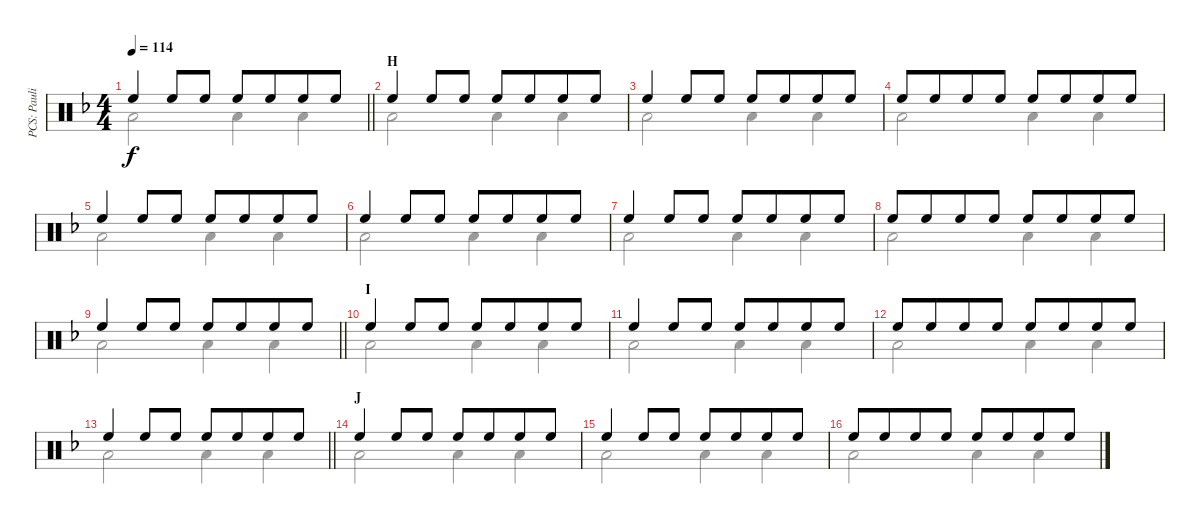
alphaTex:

\track ("PCS: Paulinho da Costa" "PCS: Pauli") {instrument percussion}
\staff {score}
\articulation defaults
\voice
\ts (4 4)
\tempo 114
\clef neutral
\barLineRight lightlight
\ks f "High Floor Tom (hit)".4{dy f} "High Floor Tom (hit)".8 "High Floor Tom (hit)".8 "High Floor Tom (hit)".8 "High Floor Tom (hit)".8{beam merge} "High Floor Tom (hit)".8 "High Floor Tom (hit)".8
|
\section ("" "H")
"High Floor Tom (hit)".4 "High Floor Tom (hit)".8 "High Floor Tom (hit)".8 "High Floor Tom (hit)".8 "High Floor Tom (hit)".8{beam merge} "High Floor Tom (hit)".8 "High Floor Tom (hit)".8 |
"High Floor Tom (hit)".4 "High Floor Tom (hit)".8 "High Floor Tom (hit)".8 "High Floor Tom (hit)".8 "High Floor Tom (hit)".8{beam merge} "High Floor Tom (hit)".8 "High Floor Tom (hit)".8 |
"High Floor Tom (hit)".8 "High Floor Tom (hit)".8{beam merge} "High Floor Tom (hit)".8 "High Floor Tom (hit)".8 "High Floor Tom (hit)".8{beam merge} "High Floor Tom (hit)".8{beam merge} "High Floor Tom (hit)".8 "High Floor Tom (hit)".8 |
"High Floor Tom (hit)".4 "High Floor Tom (hit)".8 "High Floor Tom (hit)".8 "High Floor Tom (hit)".8 "High Floor Tom (hit)".8{beam merge} "High Floor Tom (hit)".8 "High Floor Tom (hit)".8 |
"High Floor Tom (hit)".4 "High Floor Tom (hit)".8 "High Floor Tom (hit)".8 "High Floor Tom (hit)".8 "High Floor Tom (hit)".8{beam merge} "High Floor Tom (hit)".8 "High Floor Tom (hit)".8 |
"High Floor Tom (hit)".4 "High Floor Tom (hit)".8 "High Floor Tom (hit)".8 "High Floor Tom (hit)".8 "High Floor Tom (hit)".8{beam merge} "High Floor Tom (hit)".8 "High Floor Tom (hit)".8 |
"High Floor Tom (hit)".8 "High Floor Tom (hit)".8{beam merge} "High Floor Tom (hit)".8 "High Floor Tom (hit)".8 "High Floor Tom (hit)".8{beam merge} "High Floor Tom (hit)".8{beam merge} "High Floor Tom (hit)".8 "High Floor Tom (hit)".8 |
\barLineRight lightlight "High Floor Tom (hit)".4 "High Floor Tom (hit)".8 "High Floor Tom (hit)".8 "High Floor Tom (hit)".8 "High Floor Tom (hit)".8{beam merge} "High Floor Tom (hit)".8 "High Floor Tom (hit)".8
|
\section ("" "I")
"High Floor Tom (hit)".4 "High Floor Tom (hit)".8 "High Floor Tom (hit)".8 "High Floor Tom (hit)".8 "High Floor Tom (hit)".8{beam merge} "High Floor Tom (hit)".8 "High Floor Tom (hit)".8 |
"High Floor Tom (hit)".4 "High Floor Tom (hit)".8 "High Floor Tom (hit)".8 "High Floor Tom (hit)".8 "High Floor Tom (hit)".8{beam merge} "High Floor Tom (hit)".8 "High Floor Tom (hit)".8 |
"High Floor Tom (hit)".8 "High Floor Tom (hit)".8{beam merge} "High Floor Tom (hit)".8 "High Floor Tom (hit)".8 "High Floor Tom (hit)".8{beam merge} "High Floor Tom (hit)".8{beam merge} "High Floor Tom (hit)".8 "High Floor Tom (hit)".8 |
\barLineRight lightlight "High Floor Tom (hit)".4 "High Floor Tom (hit)".8 "High Floor Tom (hit)".8 "High Floor Tom (hit)".8 "High Floor Tom (hit)".8{beam merge} "High Floor Tom (hit)".8 "High Floor Tom (hit)".8
|
\section ("" "J")
"High Floor Tom (hit)".4 "High Floor Tom (hit)".8 "High Floor Tom (hit)".8 "High Floor Tom (hit)".8 "High Floor Tom (hit)".8{beam merge} "High Floor Tom (hit)".8 "High Floor Tom (hit)".8 |
"High Floor Tom (hit)".4 "High Floor Tom (hit)".8 "High Floor Tom (hit)".8 "High Floor Tom (hit)".8 "High Floor Tom (hit)".8{beam merge} "High Floor Tom (hit)".8 "High Floor Tom (hit)".8 |
"High Floor Tom (hit)".8 "High Floor Tom (hit)".8{beam merge} "High Floor Tom (hit)".8 "High Floor Tom (hit)".8 "High Floor Tom (hit)".8{beam merge} "High Floor Tom (hit)".8{beam merge} "High Floor Tom (hit)".8 "High Floor Tom (hit)".8
\voice
\clef neutral
\ottava regular
\simile none
\barLineRight lightlight
\ks f "Low Floor Tom (hit)".2{dy f} "Low Floor Tom (hit)".4 "Low Floor Tom (hit)".4
|
"Low Floor Tom (hit)".2 "Low Floor Tom (hit)".4 "Low Floor Tom (hit)".4 |
"Low Floor Tom (hit)".2 "Low Floor Tom (hit)".4 "Low Floor Tom (hit)".4 |
"Low Floor Tom (hit)".2 "Low Floor Tom (hit)".4 "Low Floor Tom (hit)".4 |
"Low Floor Tom (hit)".2 "Low Floor Tom (hit)".4 "Low Floor Tom (hit)".4 |
"Low Floor Tom (hit)".2 "Low Floor Tom (hit)".4 "Low Floor Tom (hit)".4 |
"Low Floor Tom (hit)".2 "Low Floor Tom (hit)".4 "Low Floor Tom (hit)".4 |
"Low Floor Tom (hit)".2 "Low Floor Tom (hit)".4 "Low Floor Tom (hit)".4 |
\barLineRight lightlight "Low Floor Tom (hit)".2 "Low Floor Tom (hit)".4 "Low Floor Tom (hit)".4
|
"Low Floor Tom (hit)".2 "Low Floor Tom (hit)".4 "Low Floor Tom (hit)".4 |
"Low Floor Tom (hit)".2 "Low Floor Tom (hit)".4 "Low Floor Tom (hit)".4 |
"Low Floor Tom (hit)".2 "Low Floor Tom (hit)".4 "Low Floor Tom (hit)".4 |
\barLineRight lightlight "Low Floor Tom (hit)".2 "Low Floor Tom (hit)".4 "Low Floor Tom (hit)".4
|
"Low Floor Tom (hit)".2 "Low Floor Tom (hit)".4 "Low Floor Tom (hit)".4 |
"Low Floor Tom (hit)".2 "Low Floor Tom (hit)".4 "Low Floor Tom (hit)".4 |
"Low Floor Tom (hit)".2 "Low Floor Tom (hit)".4 "Low Floor Tom (hit)".4
